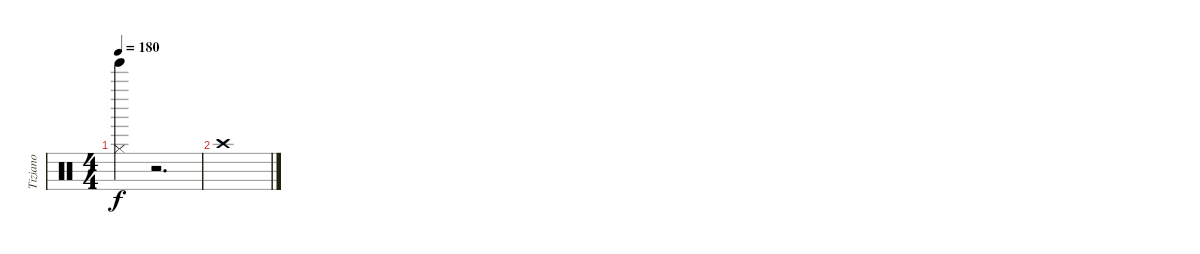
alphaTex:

\track ("Tiziano" "Tiziano") {instrument percussion}
\staff {score}
\articulation defaults
\ts (4 4)
\tempo 180
\clef neutral
\ks c
("Hi-Hat (closed)" "Tinkle Bell (hit)").4{dy f} r.2{d} |
"Crash high (hit)".1
